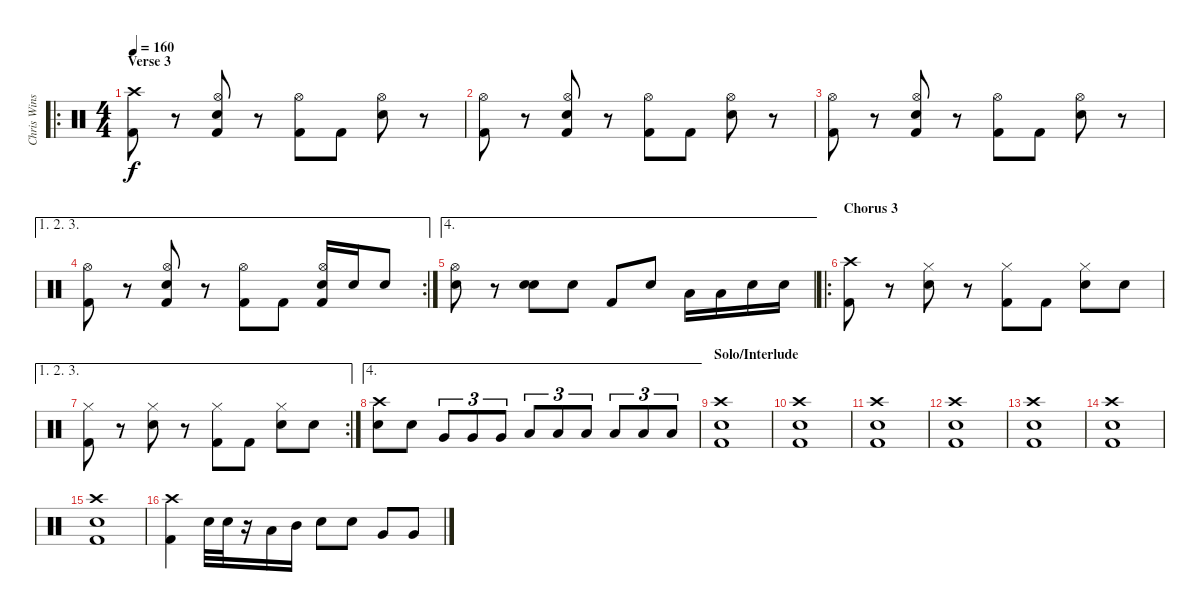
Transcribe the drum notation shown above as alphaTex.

\track ("Chris Winship (Drums)" "Chris Wins") {instrument percussion}
\staff {score}
\articulation defaults
\ro
\ts (4 4)
\section ("" "Verse 3")
\tempo 160
\clef neutral
\ks c
("Crash high (hit)" "Kick (hit) 2").8{dy f} r.8 ("Hi-Hat (open)" "Snare (hit) 2" "Kick (hit) 2").8 r.8 ("Hi-Hat (open)" "Kick (hit) 2").8 "Kick (hit) 2".8 ("Hi-Hat (open)" "Snare (hit) 2").8 r.8 |
("Hi-Hat (open)" "Kick (hit) 2").8 r.8 ("Hi-Hat (open)" "Snare (hit) 2" "Kick (hit) 2").8 r.8 ("Hi-Hat (open)" "Kick (hit) 2").8 "Kick (hit) 2".8 ("Hi-Hat (open)" "Snare (hit) 2").8 r.8 |
("Hi-Hat (open)" "Kick (hit) 2").8 r.8 ("Hi-Hat (open)" "Snare (hit) 2" "Kick (hit) 2").8 r.8 ("Hi-Hat (open)" "Kick (hit) 2").8 "Kick (hit) 2".8 ("Hi-Hat (open)" "Snare (hit) 2").8 r.8 |
\ae (1 2 3)
\rc 2
("Hi-Hat (open)" "Kick (hit) 2").8 r.8 ("Hi-Hat (open)" "Snare (hit) 2" "Kick (hit) 2").8 r.8 ("Hi-Hat (open)" "Kick (hit) 2").8 "Kick (hit) 2".8 ("Hi-Hat (open)" "Kick (hit) 2" "Snare (hit) 2").16 "Snare (hit) 2".16 "Snare (hit) 2".8 |
\ae 4
("Snare (hit) 2" "Hi-Hat (open)").8 r.8 ("Electric Snare (hit)" "Snare (hit) 2").8{bd 60} "Snare (hit) 2".8 "Kick (hit) 2".8 "Snare (hit) 2".8 "Low Floor Tom (hit)".16 "Low Floor Tom (hit)".16 "Snare (hit) 2".16 "Snare (hit) 2".16 |
\ro
\section ("" "Chorus 3")
("Crash high (hit)" "Kick (hit) 2").8 r.8 ("Hi-Hat (closed)" "Snare (hit) 2").8 r.8 ("Hi-Hat (closed)" "Kick (hit) 2").8 "Kick (hit) 2".8 ("Hi-Hat (closed)" "Snare (hit) 2").8 "Snare (hit) 2".8 |
\ae (1 2 3)
\rc 2
("Hi-Hat (closed)" "Kick (hit) 2").8 r.8 ("Hi-Hat (closed)" "Snare (hit) 2").8 r.8 ("Hi-Hat (closed)" "Kick (hit) 2").8 "Kick (hit) 2".8 ("Hi-Hat (closed)" "Snare (hit) 2").8 "Snare (hit) 2".8 |
\ae 4
("Crash high (hit)" "Snare (hit) 2").8 "Snare (hit) 2".8 "Very Low Tom (hit)".8{tu (3 2)} "Very Low Tom (hit)".8{tu (3 2)} "Very Low Tom (hit)".8{tu (3 2)} "Low Tom (hit)".8{tu (3 2)} "Low Tom (hit)".8{tu (3 2)} "Low Tom (hit)".8{tu (3 2)} "Low Floor Tom (hit)".8{tu (3 2)} "Low Floor Tom (hit)".8{tu (3 2)} "Low Floor Tom (hit)".8{tu (3 2)} |
\section ("" "Solo/Interlude")
("Crash high (hit)" "Snare (hit) 2" "Kick (hit) 2").1 |
("Crash high (hit)" "Snare (hit) 2" "Kick (hit) 2").1 |
("Crash high (hit)" "Snare (hit) 2" "Kick (hit) 2").1 |
("Crash high (hit)" "Snare (hit) 2" "Kick (hit) 2").1 |
("Crash high (hit)" "Snare (hit) 2" "Kick (hit) 2").1 |
("Crash high (hit)" "Snare (hit) 2" "Kick (hit) 2").1 |
("Crash high (hit)" "Snare (hit) 2" "Kick (hit) 2").1 |
("Crash high (hit)" "Kick (hit) 2").4 "Electric Snare (hit)".32 "Snare (hit) 2".32 r.16 "Low Tom (hit)".16 "Mid Tom (hit)".16 "Snare (hit) 2".8 "Snare (hit) 2".8 "Very Low Tom (hit)".8 "Very Low Tom (hit)".8
